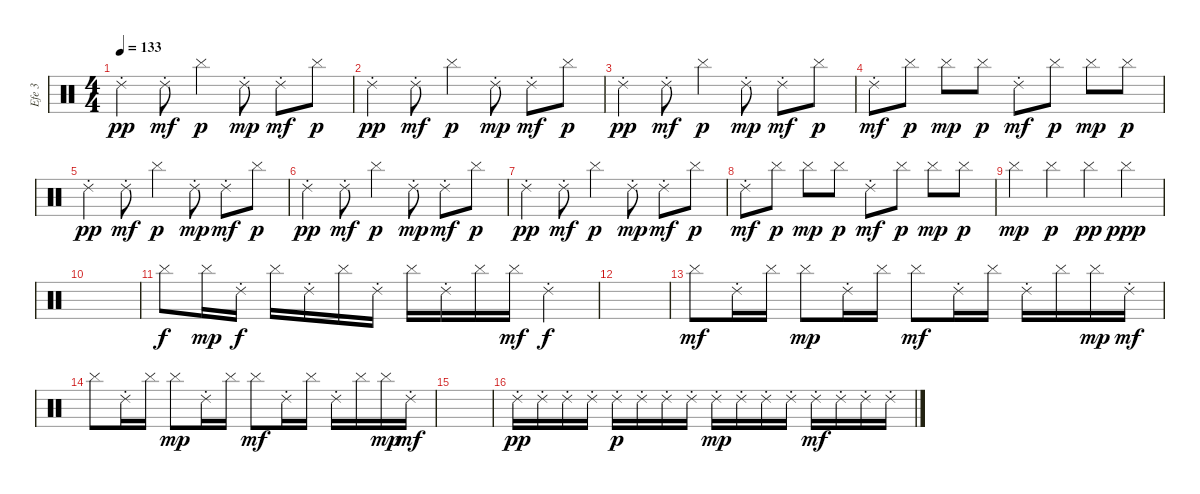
\track ("Efe 3" "Efe 3") {instrument percussion}
\staff {score}
\articulation defaults
\ts (4 4)
\tempo 133
\clef neutral
\ks c "Ride (choke) 2".4{dy pp} "Ride (choke) 2".8{dy mf} "Cymbal (hit)".4{dy p} "Ride (choke) 2".8{dy mp} "Ride (choke) 2".8{dy mf} "Cymbal (hit)".8{dy p}
|
"Ride (choke) 2".4{dy pp} "Ride (choke) 2".8{dy mf} "Cymbal (hit)".4{dy p} "Ride (choke) 2".8{dy mp} "Ride (choke) 2".8{dy mf} "Cymbal (hit)".8{dy p} |
"Ride (choke) 2".4{dy pp} "Ride (choke) 2".8{dy mf} "Cymbal (hit)".4{dy p} "Ride (choke) 2".8{dy mp} "Ride (choke) 2".8{dy mf} "Cymbal (hit)".8{dy p} |
"Ride (choke) 2".8{dy mf} "Cymbal (hit)".8{dy p} "Cymbal (hit)".8{dy mp} "Cymbal (hit)".8{dy p} "Ride (choke) 2".8{dy mf} "Cymbal (hit)".8{dy p} "Cymbal (hit)".8{dy mp} "Cymbal (hit)".8{dy p} |
"Ride (choke) 2".4{dy pp} "Ride (choke) 2".8{dy mf} "Cymbal (hit)".4{dy p} "Ride (choke) 2".8{dy mp} "Ride (choke) 2".8{dy mf} "Cymbal (hit)".8{dy p} |
"Ride (choke) 2".4{dy pp} "Ride (choke) 2".8{dy mf} "Cymbal (hit)".4{dy p} "Ride (choke) 2".8{dy mp} "Ride (choke) 2".8{dy mf} "Cymbal (hit)".8{dy p} |
"Ride (choke) 2".4{dy pp} "Ride (choke) 2".8{dy mf} "Cymbal (hit)".4{dy p} "Ride (choke) 2".8{dy mp} "Ride (choke) 2".8{dy mf} "Cymbal (hit)".8{dy p} |
"Ride (choke) 2".8{dy mf} "Cymbal (hit)".8{dy p} "Cymbal (hit)".8{dy mp} "Cymbal (hit)".8{dy p} "Ride (choke) 2".8{dy mf} "Cymbal (hit)".8{dy p} "Cymbal (hit)".8{dy mp} "Cymbal (hit)".8{dy p} |
"Cymbal (hit)".4{dy mp} "Cymbal (hit)".4{dy p} "Cymbal (hit)".4{dy pp} "Cymbal (hit)".4{dy ppp} |
|
"Cymbal (hit)".8{dy f} "Cymbal (hit)".16{dy mp} "Ride (choke) 2".16{dy f} "Cymbal (hit)".16 "Ride (choke) 2".16 "Cymbal (hit)".16 "Ride (choke) 2".16 "Cymbal (hit)".16 "Ride (choke) 2".16 "Cymbal (hit)".16 "Cymbal (hit)".16{dy mf} "Ride (choke) 2".4{dy f} |
|
"Cymbal (hit)".8{dy mf} "Ride (choke) 2".16 "Cymbal (hit)".16 "Cymbal (hit)".8{dy mp} "Ride (choke) 2".16 "Cymbal (hit)".16 "Cymbal (hit)".8{dy mf} "Ride (choke) 2".16 "Cymbal (hit)".16 "Ride (choke) 2".16 "Cymbal (hit)".16 "Cymbal (hit)".16{dy mp} "Ride (choke) 2".16{dy mf} |
"Cymbal (hit)".8 "Ride (choke) 2".16 "Cymbal (hit)".16 "Cymbal (hit)".8{dy mp} "Ride (choke) 2".16 "Cymbal (hit)".16 "Cymbal (hit)".8{dy mf} "Ride (choke) 2".16 "Cymbal (hit)".16 "Ride (choke) 2".16 "Cymbal (hit)".16 "Cymbal (hit)".16{dy mp} "Ride (choke) 2".16{dy mf} |
|
"Ride (choke) 2".16{dy pp} "Ride (choke) 2".16 "Ride (choke) 2".16 "Ride (choke) 2".16 "Ride (choke) 2".16{dy p} "Ride (choke) 2".16 "Ride (choke) 2".16 "Ride (choke) 2".16 "Ride (choke) 2".16{dy mp} "Ride (choke) 2".16 "Ride (choke) 2".16 "Ride (choke) 2".16 "Ride (choke) 2".16{dy mf} "Ride (choke) 2".16 "Ride (choke) 2".16 "Ride (choke) 2".16
